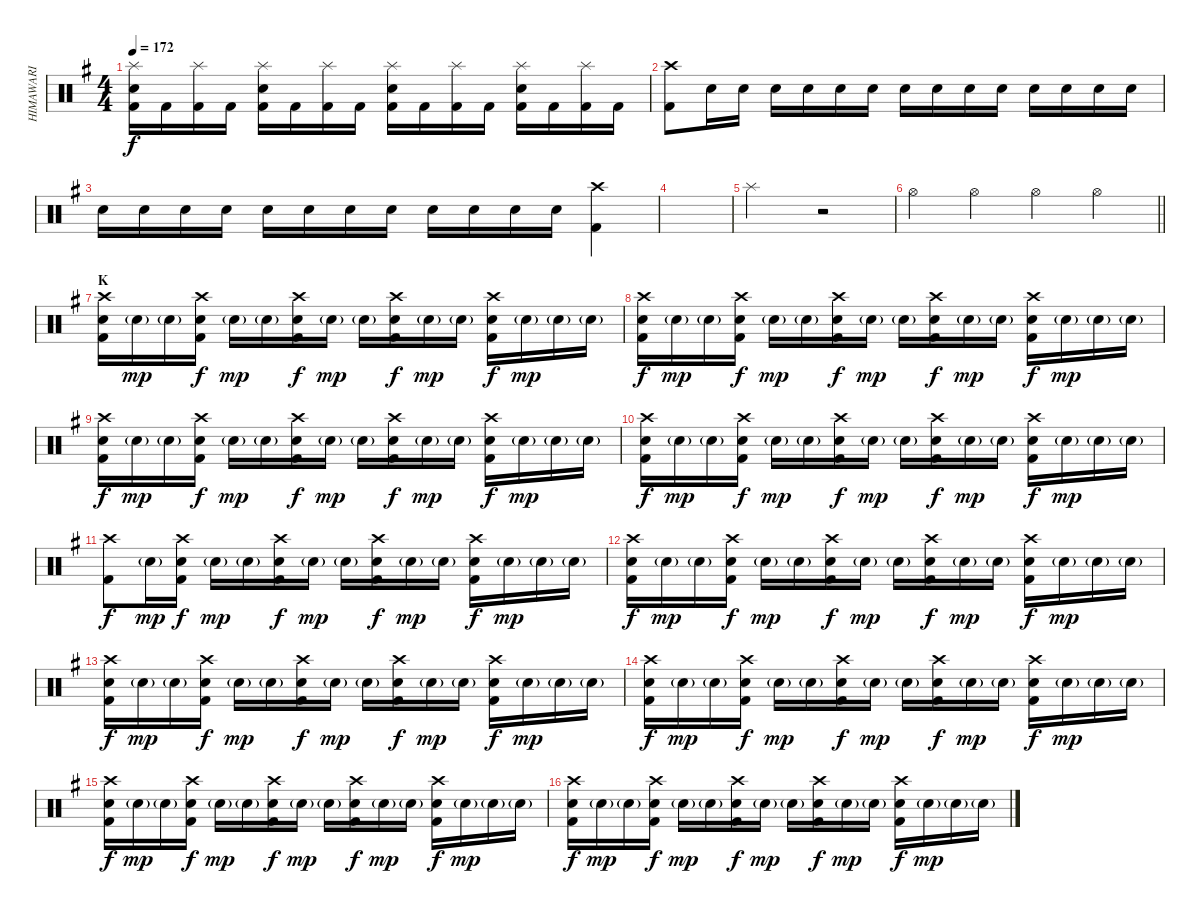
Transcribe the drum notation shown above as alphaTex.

\track ("HIMAWARI" "HIMAWARI") {instrument percussion}
\staff {score}
\articulation defaults
\ts (4 4)
\tempo 172
\clef neutral
\ks g
("Splash (hit)" "Snare (hit) 2" "Kick (hit) 2").16{dy f} "Kick (hit) 2".16 ("Splash (hit)" "Kick (hit) 2").16 "Kick (hit) 2".16 ("Splash (hit)" "Snare (hit) 2" "Kick (hit) 2").16 "Kick (hit) 2".16 ("Splash (hit)" "Kick (hit) 2").16 "Kick (hit) 2".16 ("Splash (hit)" "Snare (hit) 2" "Kick (hit) 2").16 "Kick (hit) 2".16 ("Splash (hit)" "Kick (hit) 2").16 "Kick (hit) 2".16 ("Splash (hit)" "Snare (hit) 2" "Kick (hit) 2").16 "Kick (hit) 2".16 ("Splash (hit)" "Kick (hit) 2").16 "Kick (hit) 2".16 |
("Crash high (hit)" "Kick (hit) 2").8 "Snare (hit) 2".16 "Snare (hit) 2".16 "Snare (hit) 2".16 "Snare (hit) 2".16 "Snare (hit) 2".16 "Snare (hit) 2".16 "Snare (hit) 2".16 "Snare (hit) 2".16 "Snare (hit) 2".16 "Snare (hit) 2".16 "Snare (hit) 2".16 "Snare (hit) 2".16 "Snare (hit) 2".16 "Snare (hit) 2".16 |
"Snare (hit) 2".16 "Snare (hit) 2".16 "Snare (hit) 2".16 "Snare (hit) 2".16 "Snare (hit) 2".16 "Snare (hit) 2".16 "Snare (hit) 2".16 "Snare (hit) 2".16 "Snare (hit) 2".16 "Snare (hit) 2".16 "Snare (hit) 2".16 "Snare (hit) 2".16 ("Crash high (hit)" "Kick (hit) 2").4 |
|
"Splash (hit)".2 r.2 |
\barLineRight lightlight "Hi-Hat (open)".4 "Hi-Hat (open)".4 "Hi-Hat (open)".4 "Hi-Hat (open)".4
|
\section ("" "K")
("Crash high (hit)" "Snare (hit) 2" "Kick (hit) 2").16 "Snare (hit) 2"{g}.16{dy mp} "Snare (hit) 2"{g}.16 ("Crash high (hit)" "Snare (hit) 2" "Kick (hit) 2").16{dy f} "Snare (hit) 2"{g}.16{dy mp} "Snare (hit) 2"{g}.16 ("Crash high (hit)" "Snare (hit) 2" "Kick (hit) 2").16{dy f} "Snare (hit) 2"{g}.16{dy mp} "Snare (hit) 2"{g}.16 ("Crash high (hit)" "Snare (hit) 2" "Kick (hit) 2").16{dy f} "Snare (hit) 2"{g}.16{dy mp} "Snare (hit) 2"{g}.16 ("Crash high (hit)" "Snare (hit) 2" "Kick (hit) 2").16{dy f} "Snare (hit) 2"{g}.16{dy mp} "Snare (hit) 2"{g}.16 "Snare (hit) 2"{g}.16 |
("Crash high (hit)" "Snare (hit) 2" "Kick (hit) 2").16{dy f} "Snare (hit) 2"{g}.16{dy mp} "Snare (hit) 2"{g}.16 ("Crash high (hit)" "Snare (hit) 2" "Kick (hit) 2").16{dy f} "Snare (hit) 2"{g}.16{dy mp} "Snare (hit) 2"{g}.16 ("Crash high (hit)" "Snare (hit) 2" "Kick (hit) 2").16{dy f} "Snare (hit) 2"{g}.16{dy mp} "Snare (hit) 2"{g}.16 ("Crash high (hit)" "Snare (hit) 2" "Kick (hit) 2").16{dy f} "Snare (hit) 2"{g}.16{dy mp} "Snare (hit) 2"{g}.16 ("Crash high (hit)" "Snare (hit) 2" "Kick (hit) 2").16{dy f} "Snare (hit) 2"{g}.16{dy mp} "Snare (hit) 2"{g}.16 "Snare (hit) 2"{g}.16 |
("Crash high (hit)" "Snare (hit) 2" "Kick (hit) 2").16{dy f} "Snare (hit) 2"{g}.16{dy mp} "Snare (hit) 2"{g}.16 ("Crash high (hit)" "Snare (hit) 2" "Kick (hit) 2").16{dy f} "Snare (hit) 2"{g}.16{dy mp} "Snare (hit) 2"{g}.16 ("Crash high (hit)" "Snare (hit) 2" "Kick (hit) 2").16{dy f} "Snare (hit) 2"{g}.16{dy mp} "Snare (hit) 2"{g}.16 ("Crash high (hit)" "Snare (hit) 2" "Kick (hit) 2").16{dy f} "Snare (hit) 2"{g}.16{dy mp} "Snare (hit) 2"{g}.16 ("Crash high (hit)" "Snare (hit) 2" "Kick (hit) 2").16{dy f} "Snare (hit) 2"{g}.16{dy mp} "Snare (hit) 2"{g}.16 "Snare (hit) 2"{g}.16 |
("Crash high (hit)" "Snare (hit) 2" "Kick (hit) 2").16{dy f} "Snare (hit) 2"{g}.16{dy mp} "Snare (hit) 2"{g}.16 ("Crash high (hit)" "Snare (hit) 2" "Kick (hit) 2").16{dy f} "Snare (hit) 2"{g}.16{dy mp} "Snare (hit) 2"{g}.16 ("Crash high (hit)" "Snare (hit) 2" "Kick (hit) 2").16{dy f} "Snare (hit) 2"{g}.16{dy mp} "Snare (hit) 2"{g}.16 ("Crash high (hit)" "Snare (hit) 2" "Kick (hit) 2").16{dy f} "Snare (hit) 2"{g}.16{dy mp} "Snare (hit) 2"{g}.16 ("Crash high (hit)" "Snare (hit) 2" "Kick (hit) 2").16{dy f} "Snare (hit) 2"{g}.16{dy mp} "Snare (hit) 2"{g}.16 "Snare (hit) 2"{g}.16 |
("Crash high (hit)" "Kick (hit) 2").8{dy f} "Snare (hit) 2"{g}.16{dy mp} ("Crash high (hit)" "Snare (hit) 2" "Kick (hit) 2").16{dy f} "Snare (hit) 2"{g}.16{dy mp} "Snare (hit) 2"{g}.16 ("Crash high (hit)" "Snare (hit) 2" "Kick (hit) 2").16{dy f} "Snare (hit) 2"{g}.16{dy mp} "Snare (hit) 2"{g}.16 ("Crash high (hit)" "Snare (hit) 2" "Kick (hit) 2").16{dy f} "Snare (hit) 2"{g}.16{dy mp} "Snare (hit) 2"{g}.16 ("Crash high (hit)" "Snare (hit) 2" "Kick (hit) 2").16{dy f} "Snare (hit) 2"{g}.16{dy mp} "Snare (hit) 2"{g}.16 "Snare (hit) 2"{g}.16 |
("Crash high (hit)" "Snare (hit) 2" "Kick (hit) 2").16{dy f} "Snare (hit) 2"{g}.16{dy mp} "Snare (hit) 2"{g}.16 ("Crash high (hit)" "Snare (hit) 2" "Kick (hit) 2").16{dy f} "Snare (hit) 2"{g}.16{dy mp} "Snare (hit) 2"{g}.16 ("Crash high (hit)" "Snare (hit) 2" "Kick (hit) 2").16{dy f} "Snare (hit) 2"{g}.16{dy mp} "Snare (hit) 2"{g}.16 ("Crash high (hit)" "Snare (hit) 2" "Kick (hit) 2").16{dy f} "Snare (hit) 2"{g}.16{dy mp} "Snare (hit) 2"{g}.16 ("Crash high (hit)" "Snare (hit) 2" "Kick (hit) 2").16{dy f} "Snare (hit) 2"{g}.16{dy mp} "Snare (hit) 2"{g}.16 "Snare (hit) 2"{g}.16 |
("Crash high (hit)" "Snare (hit) 2" "Kick (hit) 2").16{dy f} "Snare (hit) 2"{g}.16{dy mp} "Snare (hit) 2"{g}.16 ("Crash high (hit)" "Snare (hit) 2" "Kick (hit) 2").16{dy f} "Snare (hit) 2"{g}.16{dy mp} "Snare (hit) 2"{g}.16 ("Crash high (hit)" "Snare (hit) 2" "Kick (hit) 2").16{dy f} "Snare (hit) 2"{g}.16{dy mp} "Snare (hit) 2"{g}.16 ("Crash high (hit)" "Snare (hit) 2" "Kick (hit) 2").16{dy f} "Snare (hit) 2"{g}.16{dy mp} "Snare (hit) 2"{g}.16 ("Crash high (hit)" "Snare (hit) 2" "Kick (hit) 2").16{dy f} "Snare (hit) 2"{g}.16{dy mp} "Snare (hit) 2"{g}.16 "Snare (hit) 2"{g}.16 |
("Crash high (hit)" "Snare (hit) 2" "Kick (hit) 2").16{dy f} "Snare (hit) 2"{g}.16{dy mp} "Snare (hit) 2"{g}.16 ("Crash high (hit)" "Snare (hit) 2" "Kick (hit) 2").16{dy f} "Snare (hit) 2"{g}.16{dy mp} "Snare (hit) 2"{g}.16 ("Crash high (hit)" "Snare (hit) 2" "Kick (hit) 2").16{dy f} "Snare (hit) 2"{g}.16{dy mp} "Snare (hit) 2"{g}.16 ("Crash high (hit)" "Snare (hit) 2" "Kick (hit) 2").16{dy f} "Snare (hit) 2"{g}.16{dy mp} "Snare (hit) 2"{g}.16 ("Crash high (hit)" "Snare (hit) 2" "Kick (hit) 2").16{dy f} "Snare (hit) 2"{g}.16{dy mp} "Snare (hit) 2"{g}.16 "Snare (hit) 2"{g}.16 |
("Crash high (hit)" "Snare (hit) 2" "Kick (hit) 2").16{dy f} "Snare (hit) 2"{g}.16{dy mp} "Snare (hit) 2"{g}.16 ("Crash high (hit)" "Snare (hit) 2" "Kick (hit) 2").16{dy f} "Snare (hit) 2"{g}.16{dy mp} "Snare (hit) 2"{g}.16 ("Crash high (hit)" "Snare (hit) 2" "Kick (hit) 2").16{dy f} "Snare (hit) 2"{g}.16{dy mp} "Snare (hit) 2"{g}.16 ("Crash high (hit)" "Snare (hit) 2" "Kick (hit) 2").16{dy f} "Snare (hit) 2"{g}.16{dy mp} "Snare (hit) 2"{g}.16 ("Crash high (hit)" "Snare (hit) 2" "Kick (hit) 2").16{dy f} "Snare (hit) 2"{g}.16{dy mp} "Snare (hit) 2"{g}.16 "Snare (hit) 2"{g}.16 |
("Crash high (hit)" "Snare (hit) 2" "Kick (hit) 2").16{dy f} "Snare (hit) 2"{g}.16{dy mp} "Snare (hit) 2"{g}.16 ("Crash high (hit)" "Snare (hit) 2" "Kick (hit) 2").16{dy f} "Snare (hit) 2"{g}.16{dy mp} "Snare (hit) 2"{g}.16 ("Crash high (hit)" "Snare (hit) 2" "Kick (hit) 2").16{dy f} "Snare (hit) 2"{g}.16{dy mp} "Snare (hit) 2"{g}.16 ("Crash high (hit)" "Snare (hit) 2" "Kick (hit) 2").16{dy f} "Snare (hit) 2"{g}.16{dy mp} "Snare (hit) 2"{g}.16 ("Crash high (hit)" "Snare (hit) 2" "Kick (hit) 2").16{dy f} "Snare (hit) 2"{g}.16{dy mp} "Snare (hit) 2"{g}.16 "Snare (hit) 2"{g}.16
